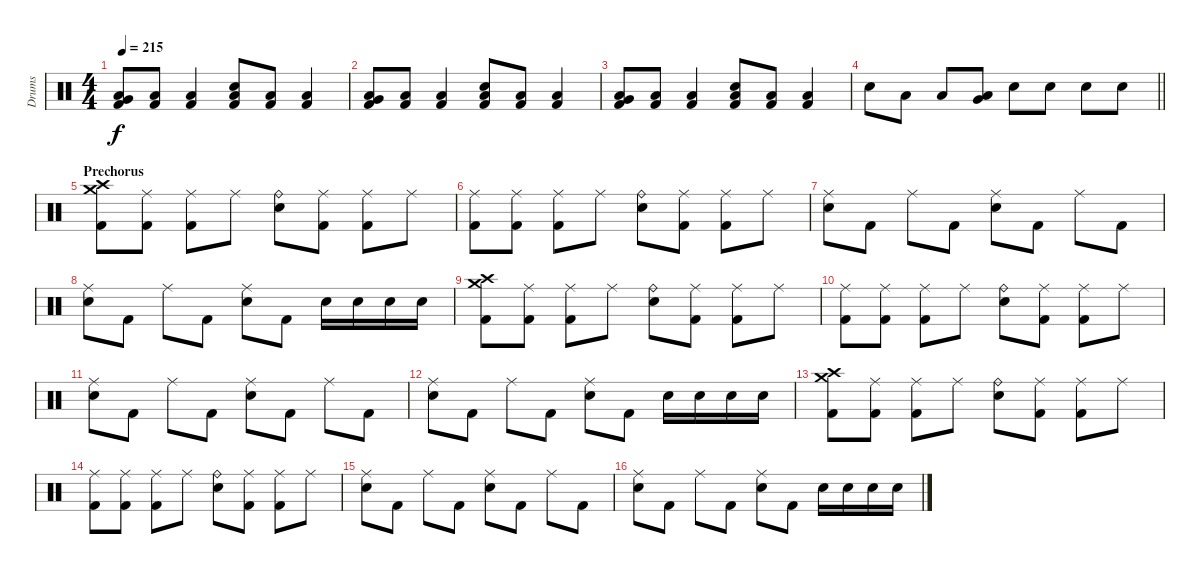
\track ("Drums" "Drums") {instrument percussion}
\staff {score}
\articulation defaults
\ts (4 4)
\tempo 215
\clef neutral
\ks c
("Very Low Tom (hit)" "Low Floor Tom (hit)" "Kick (hit) 2").8{dy f} ("Low Floor Tom (hit)" "Kick (hit) 2").8 ("Low Floor Tom (hit)" "Kick (hit) 2").4 ("Electric Snare (hit)" "Low Floor Tom (hit)" "Kick (hit) 2").8 ("Low Floor Tom (hit)" "Kick (hit) 2").8 ("Low Floor Tom (hit)" "Kick (hit) 2").4 |
("Very Low Tom (hit)" "Low Floor Tom (hit)" "Kick (hit) 2").8 ("Low Floor Tom (hit)" "Kick (hit) 2").8 ("Low Floor Tom (hit)" "Kick (hit) 2").4 ("Electric Snare (hit)" "Low Floor Tom (hit)" "Kick (hit) 2").8 ("Low Floor Tom (hit)" "Kick (hit) 2").8 ("Low Floor Tom (hit)" "Kick (hit) 2").4 |
("Very Low Tom (hit)" "Low Floor Tom (hit)" "Kick (hit) 2").8 ("Low Floor Tom (hit)" "Kick (hit) 2").8 ("Low Floor Tom (hit)" "Kick (hit) 2").4 ("Electric Snare (hit)" "Low Floor Tom (hit)" "Kick (hit) 2").8 ("Low Floor Tom (hit)" "Kick (hit) 2").8 ("Low Floor Tom (hit)" "Kick (hit) 2").4 |
\barLineRight lightlight "Electric Snare (hit)".8 "Low Floor Tom (hit)".8 "Low Floor Tom (hit)".8
("Very Low Tom (hit)" "Low Floor Tom (hit)").8 "Electric Snare (hit)".8 "Electric Snare (hit)".8 "Electric Snare (hit)".8 "Electric Snare (hit)".8 |
\section ("" "Prechorus")
("Crash medium (hit)" "Crash high (hit)" "Kick (hit) 2").8 ("Ride (middle)" "Kick (hit) 2").8 ("Ride (middle)" "Kick (hit) 2").8 "Ride (middle)".8 ("Ride (bell)" "Electric Snare (hit)").8 ("Ride (middle)" "Kick (hit) 2").8 ("Ride (middle)" "Kick (hit) 2").8 "Ride (middle)".8 |
("Ride (middle)" "Kick (hit) 2").8 ("Ride (middle)" "Kick (hit) 2").8 ("Ride (middle)" "Kick (hit) 2").8 "Ride (middle)".8 ("Ride (bell)" "Electric Snare (hit)").8 ("Ride (middle)" "Kick (hit) 2").8 ("Ride (middle)" "Kick (hit) 2").8 "Ride (middle)".8 |
("Ride (middle)" "Electric Snare (hit)").8 "Kick (hit) 2".8 "Ride (middle)".8 "Kick (hit) 2".8 ("Ride (middle)" "Electric Snare (hit)").8 "Kick (hit) 2".8 "Ride (middle)".8 "Kick (hit) 2".8 |
("Ride (middle)" "Electric Snare (hit)").8 "Kick (hit) 2".8 "Ride (middle)".8 "Kick (hit) 2".8 ("Ride (middle)" "Electric Snare (hit)").8 "Kick (hit) 2".8 "Electric Snare (hit)".16 "Electric Snare (hit)".16 "Electric Snare (hit)".16 "Electric Snare (hit)".16 |
("Crash medium (hit)" "Crash high (hit)" "Kick (hit) 2").8 ("Ride (middle)" "Kick (hit) 2").8 ("Ride (middle)" "Kick (hit) 2").8 "Ride (middle)".8 ("Ride (bell)" "Electric Snare (hit)").8 ("Ride (middle)" "Kick (hit) 2").8 ("Ride (middle)" "Kick (hit) 2").8 "Ride (middle)".8 |
("Ride (middle)" "Kick (hit) 2").8 ("Ride (middle)" "Kick (hit) 2").8 ("Ride (middle)" "Kick (hit) 2").8 "Ride (middle)".8 ("Ride (bell)" "Electric Snare (hit)").8 ("Ride (middle)" "Kick (hit) 2").8 ("Ride (middle)" "Kick (hit) 2").8 "Ride (middle)".8 |
("Ride (middle)" "Electric Snare (hit)").8 "Kick (hit) 2".8 "Ride (middle)".8 "Kick (hit) 2".8 ("Ride (middle)" "Electric Snare (hit)").8 "Kick (hit) 2".8 "Ride (middle)".8 "Kick (hit) 2".8 |
("Ride (middle)" "Electric Snare (hit)").8 "Kick (hit) 2".8 "Ride (middle)".8 "Kick (hit) 2".8 ("Ride (middle)" "Electric Snare (hit)").8 "Kick (hit) 2".8 "Electric Snare (hit)".16 "Electric Snare (hit)".16 "Electric Snare (hit)".16 "Electric Snare (hit)".16 |
("Crash medium (hit)" "Crash high (hit)" "Kick (hit) 2").8 ("Ride (middle)" "Kick (hit) 2").8 ("Ride (middle)" "Kick (hit) 2").8 "Ride (middle)".8 ("Ride (bell)" "Electric Snare (hit)").8 ("Ride (middle)" "Kick (hit) 2").8 ("Ride (middle)" "Kick (hit) 2").8 "Ride (middle)".8 |
("Ride (middle)" "Kick (hit) 2").8 ("Ride (middle)" "Kick (hit) 2").8 ("Ride (middle)" "Kick (hit) 2").8 "Ride (middle)".8 ("Ride (bell)" "Electric Snare (hit)").8 ("Ride (middle)" "Kick (hit) 2").8 ("Ride (middle)" "Kick (hit) 2").8 "Ride (middle)".8 |
("Ride (middle)" "Electric Snare (hit)").8 "Kick (hit) 2".8 "Ride (middle)".8 "Kick (hit) 2".8 ("Ride (middle)" "Electric Snare (hit)").8 "Kick (hit) 2".8 "Ride (middle)".8 "Kick (hit) 2".8 |
("Ride (middle)" "Electric Snare (hit)").8 "Kick (hit) 2".8 "Ride (middle)".8 "Kick (hit) 2".8 ("Ride (middle)" "Electric Snare (hit)").8 "Kick (hit) 2".8 "Electric Snare (hit)".16 "Electric Snare (hit)".16 "Electric Snare (hit)".16 "Electric Snare (hit)".16
